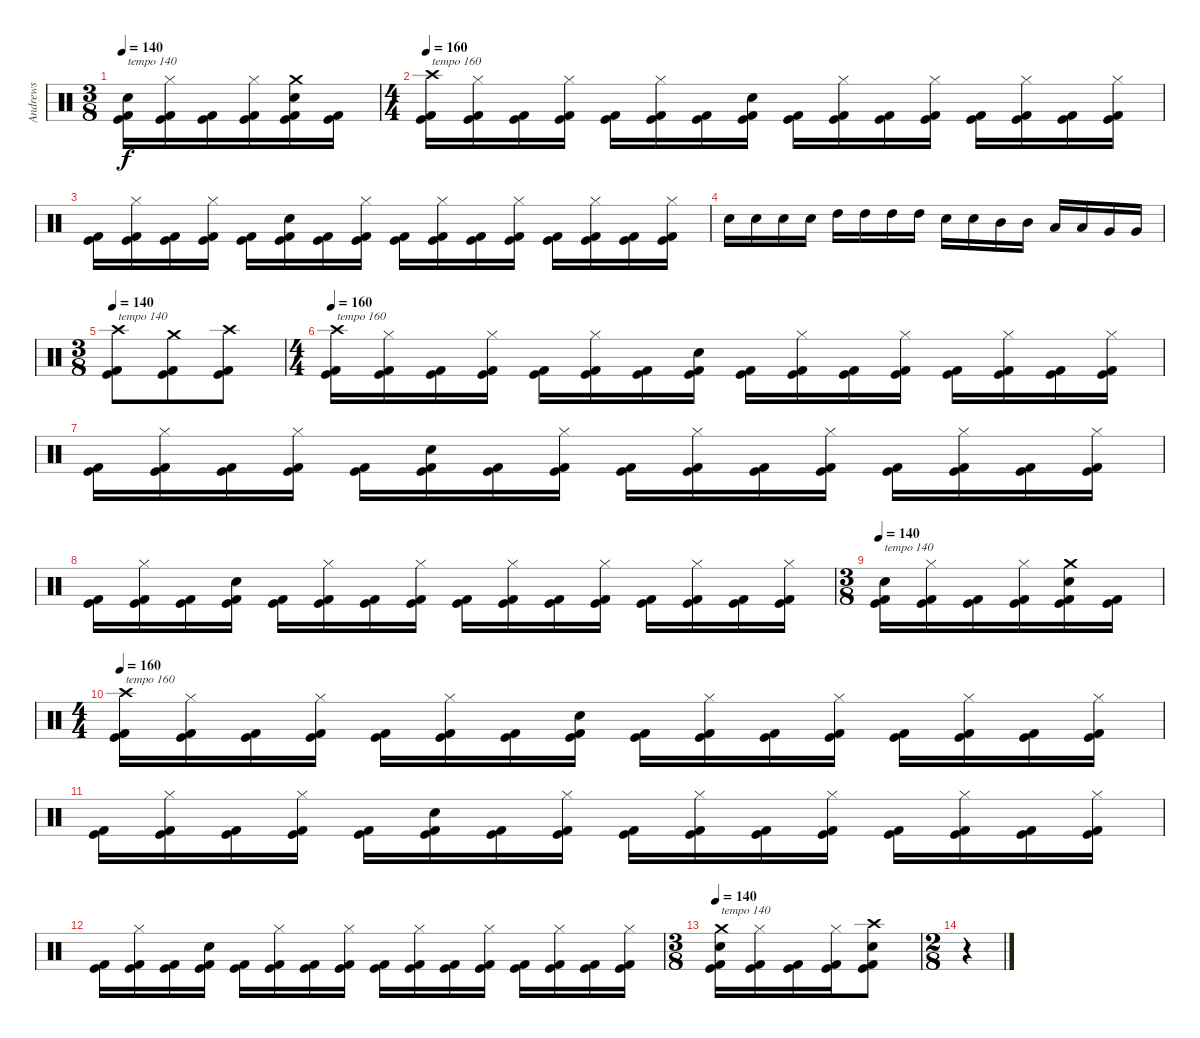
\track ("Andrews" "Andrews") {instrument percussion}
\staff {score}
\articulation defaults
\ts (3 8)
\tempo 140
\clef neutral
\ks c
("Electric Snare (hit)" "Kick (hit) 2" "Kick (hit)").16{txt "tempo 140" dy f} ("Hi-Hat (closed)" "Kick (hit) 2" "Kick (hit)").16 ("Kick (hit) 2" "Kick (hit)").16 ("Hi-Hat (closed)" "Kick (hit) 2" "Kick (hit)").16 ("Crash medium (hit)" "Electric Snare (hit)" "Kick (hit) 2" "Kick (hit)").16 ("Kick (hit) 2" "Kick (hit)").16 |
\ts (4 4)
\tempo 160
("Crash high (hit)" "Kick (hit) 2" "Kick (hit)").16{txt "tempo 160"} ("Hi-Hat (closed)" "Kick (hit) 2" "Kick (hit)").16 ("Kick (hit) 2" "Kick (hit)").16 ("Hi-Hat (closed)" "Kick (hit) 2" "Kick (hit)").16 ("Kick (hit) 2" "Kick (hit)").16 ("Hi-Hat (closed)" "Kick (hit) 2" "Kick (hit)").16 ("Kick (hit) 2" "Kick (hit)").16 ("Electric Snare (hit)" "Kick (hit) 2" "Kick (hit)").16 ("Kick (hit) 2" "Kick (hit)").16 ("Hi-Hat (closed)" "Kick (hit) 2" "Kick (hit)").16 ("Kick (hit) 2" "Kick (hit)").16 ("Hi-Hat (closed)" "Kick (hit) 2" "Kick (hit)").16 ("Kick (hit) 2" "Kick (hit)").16 ("Hi-Hat (closed)" "Kick (hit) 2" "Kick (hit)").16 ("Kick (hit) 2" "Kick (hit)").16 ("Hi-Hat (closed)" "Kick (hit) 2" "Kick (hit)").16 |
("Kick (hit) 2" "Kick (hit)").16 ("Hi-Hat (closed)" "Kick (hit) 2" "Kick (hit)").16 ("Kick (hit) 2" "Kick (hit)").16 ("Hi-Hat (closed)" "Kick (hit) 2" "Kick (hit)").16 ("Kick (hit) 2" "Kick (hit)").16 ("Electric Snare (hit)" "Kick (hit) 2" "Kick (hit)").16 ("Kick (hit) 2" "Kick (hit)").16 ("Hi-Hat (closed)" "Kick (hit) 2" "Kick (hit)").16 ("Kick (hit) 2" "Kick (hit)").16 ("Hi-Hat (closed)" "Kick (hit) 2" "Kick (hit)").16 ("Kick (hit) 2" "Kick (hit)").16 ("Hi-Hat (closed)" "Kick (hit) 2" "Kick (hit)").16 ("Kick (hit) 2" "Kick (hit)").16 ("Hi-Hat (closed)" "Kick (hit) 2" "Kick (hit)").16 ("Kick (hit) 2" "Kick (hit)").16 ("Hi-Hat (closed)" "Kick (hit) 2" "Kick (hit)").16 |
"Electric Snare (hit)".16 "Electric Snare (hit)".16 "Electric Snare (hit)".16 "Electric Snare (hit)".16 "High Tom (hit)".16 "High Tom (hit)".16 "High Tom (hit)".16 "High Tom (hit)".16 "Electric Snare (hit)".16 "Electric Snare (hit)".16 "Mid Tom (hit)".16 "Mid Tom (hit)".16 "Low Tom (hit)".16 "Low Tom (hit)".16 "Very Low Tom (hit)".16 "Very Low Tom (hit)".16 |
\ts (3 8)
\tempo 140
("Crash high (hit)" "Kick (hit) 2" "Kick (hit)").8{txt "tempo 140"} ("Crash medium (hit)" "Kick (hit) 2" "Kick (hit)").8 ("Crash high (hit)" "Kick (hit) 2" "Kick (hit)").8 |
\ts (4 4)
\tempo 160
("Crash high (hit)" "Kick (hit) 2" "Kick (hit)").16{txt "tempo 160"} ("Hi-Hat (closed)" "Kick (hit) 2" "Kick (hit)").16 ("Kick (hit) 2" "Kick (hit)").16 ("Hi-Hat (closed)" "Kick (hit) 2" "Kick (hit)").16 ("Kick (hit) 2" "Kick (hit)").16 ("Hi-Hat (closed)" "Kick (hit) 2" "Kick (hit)").16 ("Kick (hit) 2" "Kick (hit)").16 ("Electric Snare (hit)" "Kick (hit) 2" "Kick (hit)").16 ("Kick (hit) 2" "Kick (hit)").16 ("Hi-Hat (closed)" "Kick (hit) 2" "Kick (hit)").16 ("Kick (hit) 2" "Kick (hit)").16 ("Hi-Hat (closed)" "Kick (hit) 2" "Kick (hit)").16 ("Kick (hit) 2" "Kick (hit)").16 ("Hi-Hat (closed)" "Kick (hit) 2" "Kick (hit)").16 ("Kick (hit) 2" "Kick (hit)").16 ("Hi-Hat (closed)" "Kick (hit) 2" "Kick (hit)").16 |
("Kick (hit) 2" "Kick (hit)").16 ("Hi-Hat (closed)" "Kick (hit) 2" "Kick (hit)").16 ("Kick (hit) 2" "Kick (hit)").16 ("Hi-Hat (closed)" "Kick (hit) 2" "Kick (hit)").16 ("Kick (hit) 2" "Kick (hit)").16 ("Electric Snare (hit)" "Kick (hit) 2" "Kick (hit)").16 ("Kick (hit) 2" "Kick (hit)").16 ("Hi-Hat (closed)" "Kick (hit) 2" "Kick (hit)").16 ("Kick (hit) 2" "Kick (hit)").16 ("Hi-Hat (closed)" "Kick (hit) 2" "Kick (hit)").16 ("Kick (hit) 2" "Kick (hit)").16 ("Hi-Hat (closed)" "Kick (hit) 2" "Kick (hit)").16 ("Kick (hit) 2" "Kick (hit)").16 ("Hi-Hat (closed)" "Kick (hit) 2" "Kick (hit)").16 ("Kick (hit) 2" "Kick (hit)").16 ("Hi-Hat (closed)" "Kick (hit) 2" "Kick (hit)").16 |
("Kick (hit) 2" "Kick (hit)").16 ("Hi-Hat (closed)" "Kick (hit) 2" "Kick (hit)").16 ("Kick (hit) 2" "Kick (hit)").16 ("Electric Snare (hit)" "Kick (hit) 2" "Kick (hit)").16 ("Kick (hit) 2" "Kick (hit)").16 ("Hi-Hat (closed)" "Kick (hit) 2" "Kick (hit)").16 ("Kick (hit) 2" "Kick (hit)").16 ("Hi-Hat (closed)" "Kick (hit) 2" "Kick (hit)").16 ("Kick (hit) 2" "Kick (hit)").16 ("Hi-Hat (closed)" "Kick (hit) 2" "Kick (hit)").16 ("Kick (hit) 2" "Kick (hit)").16 ("Hi-Hat (closed)" "Kick (hit) 2" "Kick (hit)").16 ("Kick (hit) 2" "Kick (hit)").16 ("Hi-Hat (closed)" "Kick (hit) 2" "Kick (hit)").16 ("Kick (hit) 2" "Kick (hit)").16 ("Hi-Hat (closed)" "Kick (hit) 2" "Kick (hit)").16 |
\ts (3 8)
\tempo 140
("Electric Snare (hit)" "Kick (hit) 2" "Kick (hit)").16{txt "tempo 140"} ("Hi-Hat (closed)" "Kick (hit) 2" "Kick (hit)").16 ("Kick (hit) 2" "Kick (hit)").16 ("Hi-Hat (closed)" "Kick (hit) 2" "Kick (hit)").16 ("Crash medium (hit)" "Electric Snare (hit)" "Kick (hit) 2" "Kick (hit)").16 ("Kick (hit) 2" "Kick (hit)").16 |
\ts (4 4)
\tempo 160
("Crash high (hit)" "Kick (hit) 2" "Kick (hit)").16{txt "tempo 160"} ("Hi-Hat (closed)" "Kick (hit) 2" "Kick (hit)").16 ("Kick (hit) 2" "Kick (hit)").16 ("Hi-Hat (closed)" "Kick (hit) 2" "Kick (hit)").16 ("Kick (hit) 2" "Kick (hit)").16 ("Hi-Hat (closed)" "Kick (hit) 2" "Kick (hit)").16 ("Kick (hit) 2" "Kick (hit)").16 ("Electric Snare (hit)" "Kick (hit) 2" "Kick (hit)").16 ("Kick (hit) 2" "Kick (hit)").16 ("Hi-Hat (closed)" "Kick (hit) 2" "Kick (hit)").16 ("Kick (hit) 2" "Kick (hit)").16 ("Hi-Hat (closed)" "Kick (hit) 2" "Kick (hit)").16 ("Kick (hit) 2" "Kick (hit)").16 ("Hi-Hat (closed)" "Kick (hit) 2" "Kick (hit)").16 ("Kick (hit) 2" "Kick (hit)").16 ("Hi-Hat (closed)" "Kick (hit) 2" "Kick (hit)").16 |
("Kick (hit) 2" "Kick (hit)").16 ("Hi-Hat (closed)" "Kick (hit) 2" "Kick (hit)").16 ("Kick (hit) 2" "Kick (hit)").16 ("Hi-Hat (closed)" "Kick (hit) 2" "Kick (hit)").16 ("Kick (hit) 2" "Kick (hit)").16 ("Electric Snare (hit)" "Kick (hit) 2" "Kick (hit)").16 ("Kick (hit) 2" "Kick (hit)").16 ("Hi-Hat (closed)" "Kick (hit) 2" "Kick (hit)").16 ("Kick (hit) 2" "Kick (hit)").16 ("Hi-Hat (closed)" "Kick (hit) 2" "Kick (hit)").16 ("Kick (hit) 2" "Kick (hit)").16 ("Hi-Hat (closed)" "Kick (hit) 2" "Kick (hit)").16 ("Kick (hit) 2" "Kick (hit)").16 ("Hi-Hat (closed)" "Kick (hit) 2" "Kick (hit)").16 ("Kick (hit) 2" "Kick (hit)").16 ("Hi-Hat (closed)" "Kick (hit) 2" "Kick (hit)").16 |
("Kick (hit) 2" "Kick (hit)").16 ("Hi-Hat (closed)" "Kick (hit) 2" "Kick (hit)").16 ("Kick (hit) 2" "Kick (hit)").16 ("Electric Snare (hit)" "Kick (hit) 2" "Kick (hit)").16 ("Kick (hit) 2" "Kick (hit)").16 ("Hi-Hat (closed)" "Kick (hit) 2" "Kick (hit)").16 ("Kick (hit) 2" "Kick (hit)").16 ("Hi-Hat (closed)" "Kick (hit) 2" "Kick (hit)").16 ("Kick (hit) 2" "Kick (hit)").16 ("Hi-Hat (closed)" "Kick (hit) 2" "Kick (hit)").16 ("Kick (hit) 2" "Kick (hit)").16 ("Hi-Hat (closed)" "Kick (hit) 2" "Kick (hit)").16 ("Kick (hit) 2" "Kick (hit)").16 ("Hi-Hat (closed)" "Kick (hit) 2" "Kick (hit)").16 ("Kick (hit) 2" "Kick (hit)").16 ("Hi-Hat (closed)" "Kick (hit) 2" "Kick (hit)").16 |
\ts (3 8)
\tempo 140
("Crash medium (hit)" "Electric Snare (hit)" "Kick (hit) 2" "Kick (hit)").16{txt "tempo 140"} ("Hi-Hat (closed)" "Kick (hit) 2" "Kick (hit)").16 ("Kick (hit) 2" "Kick (hit)").16 ("Hi-Hat (closed)" "Kick (hit) 2" "Kick (hit)").16 ("Crash high (hit)" "Electric Snare (hit)" "Kick (hit) 2" "Kick (hit)").8 |
\ts (2 8)
r.4
